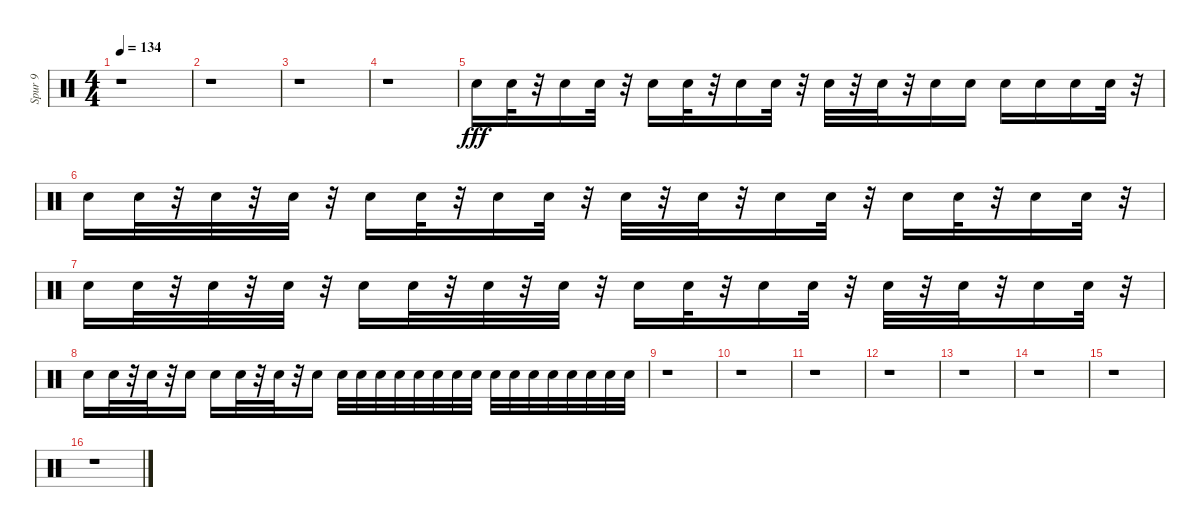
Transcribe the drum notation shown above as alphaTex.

\track ("Spur 9" "Spur 9") {instrument percussion}
\staff {score}
\articulation defaults
\ts (4 4)
\tempo 134
\clef neutral
\ks c
r.1{dy fff} |
r.1 |
r.1 |
r.1 |
"Electric Snare (hit)".16 "Electric Snare (hit)".32 r.32 "Electric Snare (hit)".16 "Electric Snare (hit)".32 r.32 "Electric Snare (hit)".16 "Electric Snare (hit)".32 r.32 "Electric Snare (hit)".16 "Electric Snare (hit)".32 r.32 "Electric Snare (hit)".32 r.32 "Electric Snare (hit)".32 r.32 "Electric Snare (hit)".16 "Electric Snare (hit)".16 "Electric Snare (hit)".16 "Electric Snare (hit)".16 "Electric Snare (hit)".16 "Electric Snare (hit)".32 r.32 |
"Electric Snare (hit)".16 "Electric Snare (hit)".32 r.32 "Electric Snare (hit)".32 r.32 "Electric Snare (hit)".32 r.32 "Electric Snare (hit)".16 "Electric Snare (hit)".32 r.32 "Electric Snare (hit)".16 "Electric Snare (hit)".32 r.32 "Electric Snare (hit)".32 r.32 "Electric Snare (hit)".32 r.32 "Electric Snare (hit)".16 "Electric Snare (hit)".32 r.32 "Electric Snare (hit)".16 "Electric Snare (hit)".32 r.32 "Electric Snare (hit)".16 "Electric Snare (hit)".32 r.32 |
"Electric Snare (hit)".16 "Electric Snare (hit)".32 r.32 "Electric Snare (hit)".32 r.32 "Electric Snare (hit)".32 r.32 "Electric Snare (hit)".16 "Electric Snare (hit)".32 r.32 "Electric Snare (hit)".32 r.32 "Electric Snare (hit)".32 r.32 "Electric Snare (hit)".16 "Electric Snare (hit)".32 r.32 "Electric Snare (hit)".16 "Electric Snare (hit)".32 r.32 "Electric Snare (hit)".32 r.32 "Electric Snare (hit)".32 r.32 "Electric Snare (hit)".16 "Electric Snare (hit)".32 r.32 |
"Electric Snare (hit)".16 "Electric Snare (hit)".32 r.32 "Electric Snare (hit)".32 r.32 "Electric Snare (hit)".16 "Electric Snare (hit)".16 "Electric Snare (hit)".32 r.32 "Electric Snare (hit)".32 r.32 "Electric Snare (hit)".16 "Electric Snare (hit)".32 "Electric Snare (hit)".32 "Electric Snare (hit)".32 "Electric Snare (hit)".32 "Electric Snare (hit)".32 "Electric Snare (hit)".32 "Electric Snare (hit)".32 "Electric Snare (hit)".32 "Electric Snare (hit)".32 "Electric Snare (hit)".32 "Electric Snare (hit)".32 "Electric Snare (hit)".32 "Electric Snare (hit)".32 "Electric Snare (hit)".32 "Electric Snare (hit)".32 "Electric Snare (hit)".32 |
r.1 |
r.1 |
r.1 |
r.1 |
r.1 |
r.1 |
r.1 |
r.1
